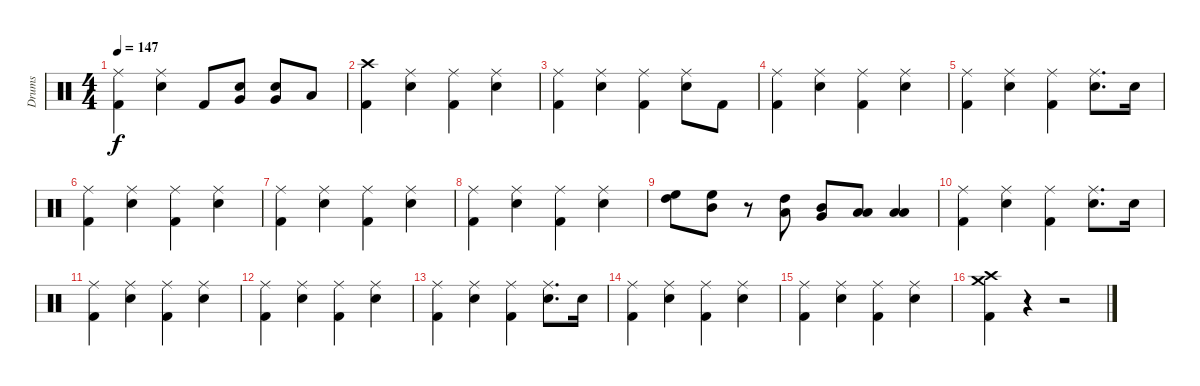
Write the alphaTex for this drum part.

\track ("Drums" "Drums") {instrument percussion}
\staff {score}
\articulation defaults
\ts (4 4)
\tempo 147
\clef neutral
\ks c
("Ride (middle)" "Kick (hit) 2").4{dy f} ("Ride (middle)" "Snare (hit) 2").4 "Kick (hit) 2".8 ("Snare (hit) 2" "Very Low Tom (hit)").8 ("Snare (hit) 2" "Very Low Tom (hit)").8 "Low Floor Tom (hit)".8 |
("Crash high (hit)" "Kick (hit) 2").4 ("Ride (middle)" "Snare (hit) 2").4 ("Ride (middle)" "Kick (hit) 2").4 ("Ride (middle)" "Snare (hit) 2").4 |
("Ride (middle)" "Kick (hit) 2").4 ("Ride (middle)" "Snare (hit) 2").4 ("Ride (middle)" "Kick (hit) 2").4 ("Ride (middle)" "Snare (hit) 2").8 "Kick (hit) 2".8 |
("Ride (middle)" "Kick (hit) 2").4 ("Ride (middle)" "Snare (hit) 2").4 ("Ride (middle)" "Kick (hit) 2").4 ("Ride (middle)" "Snare (hit) 2").4 |
("Ride (middle)" "Kick (hit) 2").4 ("Ride (middle)" "Snare (hit) 2").4 ("Ride (middle)" "Kick (hit) 2").4 ("Ride (middle)" "Snare (hit) 2").8{d} "Snare (hit) 2".16 |
("Ride (middle)" "Kick (hit) 2").4 ("Ride (middle)" "Snare (hit) 2").4 ("Ride (middle)" "Kick (hit) 2").4 ("Ride (middle)" "Snare (hit) 2").4 |
("Ride (middle)" "Kick (hit) 2").4 ("Ride (middle)" "Snare (hit) 2").4 ("Ride (middle)" "Kick (hit) 2").4 ("Ride (middle)" "Snare (hit) 2").4 |
("Ride (middle)" "Kick (hit) 2").4 ("Ride (middle)" "Snare (hit) 2").4 ("Ride (middle)" "Kick (hit) 2").4 ("Ride (middle)" "Snare (hit) 2").4 |
("High Tom (hit)" "High Floor Tom (hit)").8 ("Mid Tom (hit)" "High Floor Tom (hit)").8 r.8 ("Low Tom (hit)" "High Tom (hit)").8 ("Very Low Tom (hit)" "Mid Tom (hit)").8 ("Low Floor Tom (hit)" "Low Tom (hit)").8 ("Low Floor Tom (hit)" "Low Tom (hit)").4 |
("Ride (middle)" "Kick (hit) 2").4 ("Ride (middle)" "Snare (hit) 2").4 ("Ride (middle)" "Kick (hit) 2").4 ("Ride (middle)" "Snare (hit) 2").8{d} "Snare (hit) 2".16 |
("Ride (middle)" "Kick (hit) 2").4 ("Ride (middle)" "Snare (hit) 2").4 ("Ride (middle)" "Kick (hit) 2").4 ("Ride (middle)" "Snare (hit) 2").4 |
("Ride (middle)" "Kick (hit) 2").4 ("Ride (middle)" "Snare (hit) 2").4 ("Ride (middle)" "Kick (hit) 2").4 ("Ride (middle)" "Snare (hit) 2").4 |
("Ride (middle)" "Kick (hit) 2").4 ("Ride (middle)" "Snare (hit) 2").4 ("Ride (middle)" "Kick (hit) 2").4 ("Ride (middle)" "Snare (hit) 2").8{d} "Snare (hit) 2".16 |
("Ride (middle)" "Kick (hit) 2").4 ("Ride (middle)" "Snare (hit) 2").4 ("Ride (middle)" "Kick (hit) 2").4 ("Ride (middle)" "Snare (hit) 2").4 |
("Ride (middle)" "Kick (hit) 2").4 ("Ride (middle)" "Snare (hit) 2").4 ("Ride (middle)" "Kick (hit) 2").4 ("Ride (middle)" "Snare (hit) 2").4 |
("Crash high (hit)" "Crash medium (hit)" "Kick (hit) 2").4 r.4 r.2
